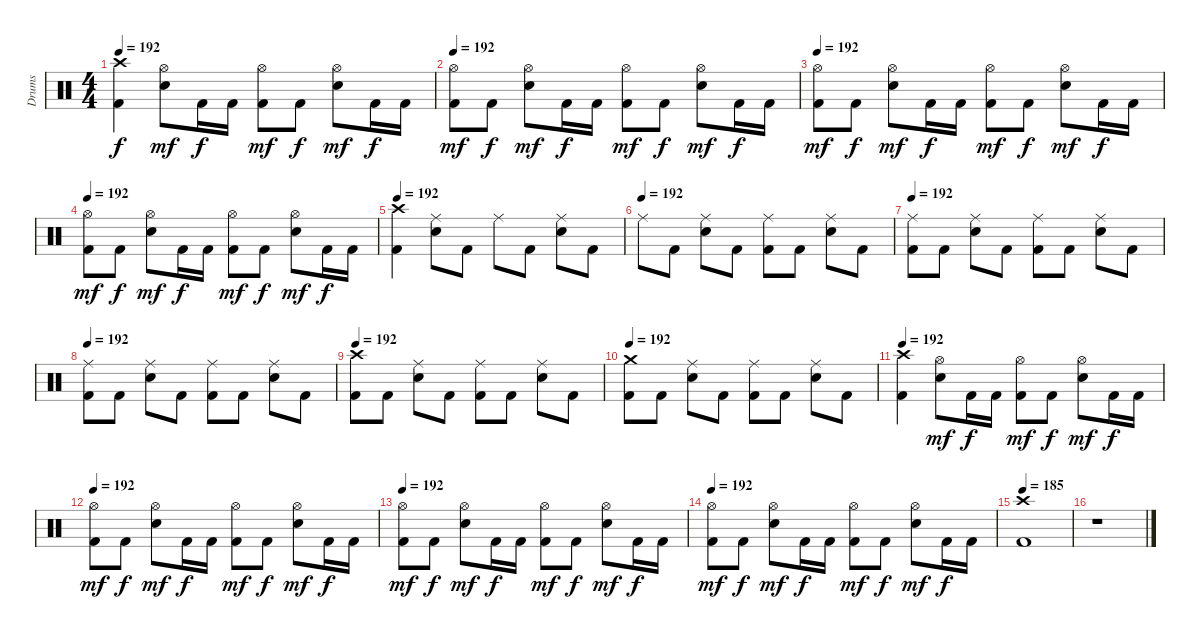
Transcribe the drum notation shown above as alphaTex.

\track ("Drums" "Drums") {instrument percussion}
\staff {score}
\articulation defaults
\ts (4 4)
\tempo 192
\clef neutral
\ks c
("Crash high (hit)" "Kick (hit) 2").4{dy f} ("Hi-Hat (open)" "Electric Snare (hit)").8{dy mf} "Kick (hit) 2".16{dy f} "Kick (hit) 2".16 ("Hi-Hat (open)" "Kick (hit) 2").8{dy mf} "Kick (hit) 2".8{dy f} ("Hi-Hat (open)" "Electric Snare (hit)").8{dy mf} "Kick (hit) 2".16{dy f} "Kick (hit) 2".16 |
\tempo 192
("Hi-Hat (open)" "Kick (hit) 2").8{dy mf} "Kick (hit) 2".8{dy f} ("Hi-Hat (open)" "Electric Snare (hit)").8{dy mf} "Kick (hit) 2".16{dy f} "Kick (hit) 2".16 ("Hi-Hat (open)" "Kick (hit) 2").8{dy mf} "Kick (hit) 2".8{dy f} ("Hi-Hat (open)" "Electric Snare (hit)").8{dy mf} "Kick (hit) 2".16{dy f} "Kick (hit) 2".16 |
\tempo 192
("Hi-Hat (open)" "Kick (hit) 2").8{dy mf} "Kick (hit) 2".8{dy f} ("Hi-Hat (open)" "Electric Snare (hit)").8{dy mf} "Kick (hit) 2".16{dy f} "Kick (hit) 2".16 ("Hi-Hat (open)" "Kick (hit) 2").8{dy mf} "Kick (hit) 2".8{dy f} ("Hi-Hat (open)" "Electric Snare (hit)").8{dy mf} "Kick (hit) 2".16{dy f} "Kick (hit) 2".16 |
\tempo 192
("Hi-Hat (open)" "Kick (hit) 2").8{dy mf} "Kick (hit) 2".8{dy f} ("Hi-Hat (open)" "Electric Snare (hit)").8{dy mf} "Kick (hit) 2".16{dy f} "Kick (hit) 2".16 ("Hi-Hat (open)" "Kick (hit) 2").8{dy mf} "Kick (hit) 2".8{dy f} ("Hi-Hat (open)" "Electric Snare (hit)").8{dy mf} "Kick (hit) 2".16{dy f} "Kick (hit) 2".16 |
\tempo 192
("Crash high (hit)" "Kick (hit) 2").4 ("Ride (middle)" "Electric Snare (hit)").8 "Kick (hit) 2".8 "Ride (middle)".8 "Kick (hit) 2".8 ("Ride (middle)" "Electric Snare (hit)").8 "Kick (hit) 2".8 |
\tempo (192)
"Ride (middle)".8 "Kick (hit) 2".8 ("Ride (middle)" "Electric Snare (hit)").8 "Kick (hit) 2".8 ("Ride (middle)" "Kick (hit) 2").8 "Kick (hit) 2".8 ("Ride (middle)" "Electric Snare (hit)").8 "Kick (hit) 2".8 |
\tempo 192
("Ride (middle)" "Kick (hit) 2").8 "Kick (hit) 2".8 ("Ride (middle)" "Electric Snare (hit)").8 "Kick (hit) 2".8 ("Ride (middle)" "Kick (hit) 2").8 "Kick (hit) 2".8 ("Ride (middle)" "Electric Snare (hit)").8 "Kick (hit) 2".8 |
\tempo 192
("Ride (middle)" "Kick (hit) 2").8 "Kick (hit) 2".8 ("Ride (middle)" "Electric Snare (hit)").8 "Kick (hit) 2".8 ("Ride (middle)" "Kick (hit) 2").8 "Kick (hit) 2".8 ("Ride (middle)" "Electric Snare (hit)").8 "Kick (hit) 2".8 |
\tempo 192
("Crash high (hit)" "Kick (hit) 2").8 "Kick (hit) 2".8 ("Ride (middle)" "Electric Snare (hit)").8 "Kick (hit) 2".8 ("Ride (middle)" "Kick (hit) 2").8 "Kick (hit) 2".8 ("Ride (middle)" "Electric Snare (hit)").8 "Kick (hit) 2".8 |
\tempo 192
("Crash medium (hit)" "Kick (hit) 2").8 "Kick (hit) 2".8 ("Ride (middle)" "Electric Snare (hit)").8 "Kick (hit) 2".8 ("Ride (middle)" "Kick (hit) 2").8 "Kick (hit) 2".8 ("Ride (middle)" "Electric Snare (hit)").8 "Kick (hit) 2".8 |
\tempo 192
("Crash high (hit)" "Kick (hit) 2").4 ("Hi-Hat (open)" "Electric Snare (hit)").8{dy mf} "Kick (hit) 2".16{dy f} "Kick (hit) 2".16 ("Hi-Hat (open)" "Kick (hit) 2").8{dy mf} "Kick (hit) 2".8{dy f} ("Hi-Hat (open)" "Electric Snare (hit)").8{dy mf} "Kick (hit) 2".16{dy f} "Kick (hit) 2".16 |
\tempo 192
("Hi-Hat (open)" "Kick (hit) 2").8{dy mf} "Kick (hit) 2".8{dy f} ("Hi-Hat (open)" "Electric Snare (hit)").8{dy mf} "Kick (hit) 2".16{dy f} "Kick (hit) 2".16 ("Hi-Hat (open)" "Kick (hit) 2").8{dy mf} "Kick (hit) 2".8{dy f} ("Hi-Hat (open)" "Electric Snare (hit)").8{dy mf} "Kick (hit) 2".16{dy f} "Kick (hit) 2".16 |
\tempo 192
("Hi-Hat (open)" "Kick (hit) 2").8{dy mf} "Kick (hit) 2".8{dy f} ("Hi-Hat (open)" "Electric Snare (hit)").8{dy mf} "Kick (hit) 2".16{dy f} "Kick (hit) 2".16 ("Hi-Hat (open)" "Kick (hit) 2").8{dy mf} "Kick (hit) 2".8{dy f} ("Hi-Hat (open)" "Electric Snare (hit)").8{dy mf} "Kick (hit) 2".16{dy f} "Kick (hit) 2".16 |
\tempo 192
("Hi-Hat (open)" "Kick (hit) 2").8{dy mf} "Kick (hit) 2".8{dy f} ("Hi-Hat (open)" "Electric Snare (hit)").8{dy mf} "Kick (hit) 2".16{dy f} "Kick (hit) 2".16 ("Hi-Hat (open)" "Kick (hit) 2").8{dy mf} "Kick (hit) 2".8{dy f} ("Hi-Hat (open)" "Electric Snare (hit)").8{dy mf} "Kick (hit) 2".16{dy f} "Kick (hit) 2".16 |
\tempo 185
("Crash high (hit)" "Kick (hit) 2").1 |
r.1
